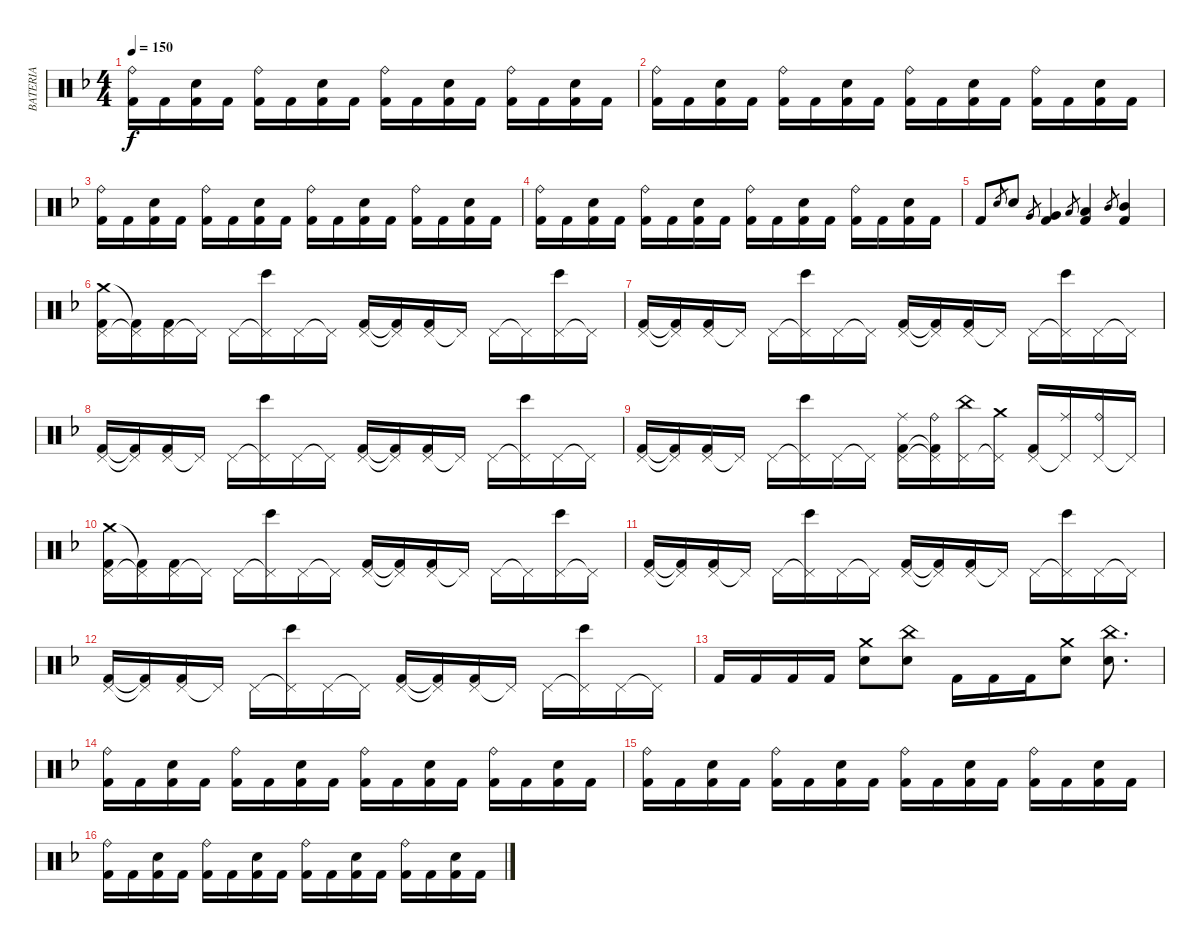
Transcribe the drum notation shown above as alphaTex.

\track ("BATERIA" "BATERIA") {instrument percussion}
\staff {score}
\articulation defaults
\ts (4 4)
\tempo 150
\clef neutral
\ks dminor
("Ride (bell)" "Kick (hit) 2").16{dy f} "Kick (hit) 2".16 ("Snare (hit) 2" "Kick (hit) 2").16 "Kick (hit) 2".16 ("Ride (bell)" "Kick (hit) 2").16 "Kick (hit) 2".16 ("Snare (hit) 2" "Kick (hit) 2").16 "Kick (hit) 2".16 ("Ride (bell)" "Kick (hit) 2").16 "Kick (hit) 2".16 ("Snare (hit) 2" "Kick (hit) 2").16 "Kick (hit) 2".16 ("Ride (bell)" "Kick (hit) 2").16 "Kick (hit) 2".16 ("Snare (hit) 2" "Kick (hit) 2").16 "Kick (hit) 2".16 |
("Ride (bell)" "Kick (hit) 2").16 "Kick (hit) 2".16 ("Snare (hit) 2" "Kick (hit) 2").16 "Kick (hit) 2".16 ("Ride (bell)" "Kick (hit) 2").16 "Kick (hit) 2".16 ("Snare (hit) 2" "Kick (hit) 2").16 "Kick (hit) 2".16 ("Ride (bell)" "Kick (hit) 2").16 "Kick (hit) 2".16 ("Snare (hit) 2" "Kick (hit) 2").16 "Kick (hit) 2".16 ("Ride (bell)" "Kick (hit) 2").16 "Kick (hit) 2".16 ("Snare (hit) 2" "Kick (hit) 2").16 "Kick (hit) 2".16 |
("Ride (bell)" "Kick (hit) 2").16 "Kick (hit) 2".16 ("Snare (hit) 2" "Kick (hit) 2").16 "Kick (hit) 2".16 ("Ride (bell)" "Kick (hit) 2").16 "Kick (hit) 2".16 ("Snare (hit) 2" "Kick (hit) 2").16 "Kick (hit) 2".16 ("Ride (bell)" "Kick (hit) 2").16 "Kick (hit) 2".16 ("Snare (hit) 2" "Kick (hit) 2").16 "Kick (hit) 2".16 ("Ride (bell)" "Kick (hit) 2").16 "Kick (hit) 2".16 ("Snare (hit) 2" "Kick (hit) 2").16 "Kick (hit) 2".16 |
("Ride (bell)" "Kick (hit) 2").16 "Kick (hit) 2".16 ("Snare (hit) 2" "Kick (hit) 2").16 "Kick (hit) 2".16 ("Ride (bell)" "Kick (hit) 2").16 "Kick (hit) 2".16 ("Snare (hit) 2" "Kick (hit) 2").16 "Kick (hit) 2".16 ("Ride (bell)" "Kick (hit) 2").16 "Kick (hit) 2".16 ("Snare (hit) 2" "Kick (hit) 2").16 "Kick (hit) 2".16 ("Ride (bell)" "Kick (hit) 2").16 "Kick (hit) 2".16 ("Snare (hit) 2" "Kick (hit) 2").16 "Kick (hit) 2".16 |
"Kick (hit) 2".8 "Snare (hit) 2".8{gr} "Snare (hit) 2".8 "Very Low Tom (hit)".8{gr} ("Very Low Tom (hit)" "Kick (hit) 2").4 "Low Tom (hit)".8{gr} ("Low Tom (hit)" "Kick (hit) 2").4 "Mid Tom (hit)".8{gr} ("Mid Tom (hit)" "Kick (hit) 2").4 |
("Pedal Hi-Hat (hit)" "Crash medium (hit)" "Kick (hit) 2").16 ("Pedal Hi-Hat (hit)"{t} "Kick (hit) 2"{t}).16 ("Pedal Hi-Hat (hit)" "Kick (hit) 2").16 "Pedal Hi-Hat (hit)"{t}.16 "Pedal Hi-Hat (hit)".16 ("Pedal Hi-Hat (hit)"{t} "Bongo High (hit)").16 "Pedal Hi-Hat (hit)".16 "Pedal Hi-Hat (hit)"{t}.16 ("Pedal Hi-Hat (hit)" "Kick (hit) 2").16 ("Pedal Hi-Hat (hit)"{t} "Kick (hit) 2"{t}).16 ("Pedal Hi-Hat (hit)" "Kick (hit) 2").16 "Pedal Hi-Hat (hit)"{t}.16 "Pedal Hi-Hat (hit)".16 "Pedal Hi-Hat (hit)"{t}.16 ("Pedal Hi-Hat (hit)" "Bongo High (hit)").16 "Pedal Hi-Hat (hit)"{t}.16 |
("Pedal Hi-Hat (hit)" "Kick (hit) 2").16 ("Pedal Hi-Hat (hit)"{t} "Kick (hit) 2"{t}).16 ("Pedal Hi-Hat (hit)" "Kick (hit) 2").16 "Pedal Hi-Hat (hit)"{t}.16 "Pedal Hi-Hat (hit)".16 ("Pedal Hi-Hat (hit)"{t} "Bongo High (hit)").16 "Pedal Hi-Hat (hit)".16 "Pedal Hi-Hat (hit)"{t}.16 ("Pedal Hi-Hat (hit)" "Kick (hit) 2").16 ("Pedal Hi-Hat (hit)"{t} "Kick (hit) 2"{t}).16 ("Pedal Hi-Hat (hit)" "Kick (hit) 2").16 "Pedal Hi-Hat (hit)"{t}.16 "Pedal Hi-Hat (hit)".16 ("Pedal Hi-Hat (hit)"{t} "Bongo High (hit)").16 "Pedal Hi-Hat (hit)".16 "Pedal Hi-Hat (hit)"{t}.16 |
("Pedal Hi-Hat (hit)" "Kick (hit) 2").16 ("Pedal Hi-Hat (hit)"{t} "Kick (hit) 2"{t}).16 ("Pedal Hi-Hat (hit)" "Kick (hit) 2").16 "Pedal Hi-Hat (hit)"{t}.16 "Pedal Hi-Hat (hit)".16 ("Pedal Hi-Hat (hit)"{t} "Bongo High (hit)").16 "Pedal Hi-Hat (hit)".16 "Pedal Hi-Hat (hit)"{t}.16 ("Pedal Hi-Hat (hit)" "Kick (hit) 2").16 ("Pedal Hi-Hat (hit)"{t} "Kick (hit) 2"{t}).16 ("Pedal Hi-Hat (hit)" "Kick (hit) 2").16 "Pedal Hi-Hat (hit)"{t}.16 "Pedal Hi-Hat (hit)".16 ("Pedal Hi-Hat (hit)"{t} "Bongo High (hit)").16 "Pedal Hi-Hat (hit)".16 "Pedal Hi-Hat (hit)"{t}.16 |
("Pedal Hi-Hat (hit)" "Kick (hit) 2").16 ("Pedal Hi-Hat (hit)"{t} "Kick (hit) 2"{t}).16 ("Pedal Hi-Hat (hit)" "Kick (hit) 2").16 "Pedal Hi-Hat (hit)"{t}.16 "Pedal Hi-Hat (hit)".16 ("Pedal Hi-Hat (hit)"{t} "Bongo High (hit)").16 "Pedal Hi-Hat (hit)".16 "Pedal Hi-Hat (hit)"{t}.16 ("Pedal Hi-Hat (hit)" "Ride (middle)" "Kick (hit) 2").16 ("Pedal Hi-Hat (hit)"{t} "Ride (bell)" "Kick (hit) 2"{t}).16 ("Pedal Hi-Hat (hit)" "China (hit)").16 ("Pedal Hi-Hat (hit)"{t} "Crash medium (hit)").16 ("Pedal Hi-Hat (hit)" "Kick (hit) 2").16 ("Pedal Hi-Hat (hit)"{t} "Ride (middle)").16 ("Pedal Hi-Hat (hit)" "Ride (bell)").16 "Pedal Hi-Hat (hit)"{t}.16 |
("Pedal Hi-Hat (hit)" "Crash medium (hit)" "Kick (hit) 2").16 ("Pedal Hi-Hat (hit)"{t} "Kick (hit) 2"{t}).16 ("Pedal Hi-Hat (hit)" "Kick (hit) 2").16 "Pedal Hi-Hat (hit)"{t}.16 "Pedal Hi-Hat (hit)".16 ("Pedal Hi-Hat (hit)"{t} "Bongo High (hit)").16 "Pedal Hi-Hat (hit)".16 "Pedal Hi-Hat (hit)"{t}.16 ("Pedal Hi-Hat (hit)" "Kick (hit) 2").16 ("Pedal Hi-Hat (hit)"{t} "Kick (hit) 2"{t}).16 ("Pedal Hi-Hat (hit)" "Kick (hit) 2").16 "Pedal Hi-Hat (hit)"{t}.16 "Pedal Hi-Hat (hit)".16 "Pedal Hi-Hat (hit)"{t}.16 ("Pedal Hi-Hat (hit)" "Bongo High (hit)").16 "Pedal Hi-Hat (hit)"{t}.16 |
("Pedal Hi-Hat (hit)" "Kick (hit) 2").16 ("Pedal Hi-Hat (hit)"{t} "Kick (hit) 2"{t}).16 ("Pedal Hi-Hat (hit)" "Kick (hit) 2").16 "Pedal Hi-Hat (hit)"{t}.16 "Pedal Hi-Hat (hit)".16 ("Pedal Hi-Hat (hit)"{t} "Bongo High (hit)").16 "Pedal Hi-Hat (hit)".16 "Pedal Hi-Hat (hit)"{t}.16 ("Pedal Hi-Hat (hit)" "Kick (hit) 2").16 ("Pedal Hi-Hat (hit)"{t} "Kick (hit) 2"{t}).16 ("Pedal Hi-Hat (hit)" "Kick (hit) 2").16 "Pedal Hi-Hat (hit)"{t}.16 "Pedal Hi-Hat (hit)".16 ("Pedal Hi-Hat (hit)"{t} "Bongo High (hit)").16 "Pedal Hi-Hat (hit)".16 "Pedal Hi-Hat (hit)"{t}.16 |
("Pedal Hi-Hat (hit)" "Kick (hit) 2").16 ("Pedal Hi-Hat (hit)"{t} "Kick (hit) 2"{t}).16 ("Pedal Hi-Hat (hit)" "Kick (hit) 2").16 "Pedal Hi-Hat (hit)"{t}.16 "Pedal Hi-Hat (hit)".16 ("Pedal Hi-Hat (hit)"{t} "Bongo High (hit)").16 "Pedal Hi-Hat (hit)".16 "Pedal Hi-Hat (hit)"{t}.16 ("Pedal Hi-Hat (hit)" "Kick (hit) 2").16 ("Pedal Hi-Hat (hit)"{t} "Kick (hit) 2"{t}).16 ("Pedal Hi-Hat (hit)" "Kick (hit) 2").16 "Pedal Hi-Hat (hit)"{t}.16 "Pedal Hi-Hat (hit)".16 ("Pedal Hi-Hat (hit)"{t} "Bongo High (hit)").16 "Pedal Hi-Hat (hit)".16 "Pedal Hi-Hat (hit)"{t}.16 |
"Kick (hit) 2".16 "Kick (hit) 2".16 "Kick (hit) 2".16 "Kick (hit) 2".16 ("Crash medium (hit)" "Snare (hit) 2").8 ("China (hit)" "Snare (hit) 2").8 "Kick (hit) 2".16 "Kick (hit) 2".16 "Kick (hit) 2".16 ("Crash medium (hit)" "Snare (hit) 2").8 ("China (hit)" "Snare (hit) 2").8{d} |
("Ride (bell)" "Kick (hit) 2").16 "Kick (hit) 2".16 ("Snare (hit) 2" "Kick (hit) 2").16 "Kick (hit) 2".16 ("Ride (bell)" "Kick (hit) 2").16 "Kick (hit) 2".16 ("Snare (hit) 2" "Kick (hit) 2").16 "Kick (hit) 2".16 ("Ride (bell)" "Kick (hit) 2").16 "Kick (hit) 2".16 ("Snare (hit) 2" "Kick (hit) 2").16 "Kick (hit) 2".16 ("Ride (bell)" "Kick (hit) 2").16 "Kick (hit) 2".16 ("Snare (hit) 2" "Kick (hit) 2").16 "Kick (hit) 2".16 |
("Ride (bell)" "Kick (hit) 2").16 "Kick (hit) 2".16 ("Snare (hit) 2" "Kick (hit) 2").16 "Kick (hit) 2".16 ("Ride (bell)" "Kick (hit) 2").16 "Kick (hit) 2".16 ("Snare (hit) 2" "Kick (hit) 2").16 "Kick (hit) 2".16 ("Ride (bell)" "Kick (hit) 2").16 "Kick (hit) 2".16 ("Snare (hit) 2" "Kick (hit) 2").16 "Kick (hit) 2".16 ("Ride (bell)" "Kick (hit) 2").16 "Kick (hit) 2".16 ("Snare (hit) 2" "Kick (hit) 2").16 "Kick (hit) 2".16 |
("Ride (bell)" "Kick (hit) 2").16 "Kick (hit) 2".16 ("Snare (hit) 2" "Kick (hit) 2").16 "Kick (hit) 2".16 ("Ride (bell)" "Kick (hit) 2").16 "Kick (hit) 2".16 ("Snare (hit) 2" "Kick (hit) 2").16 "Kick (hit) 2".16 ("Ride (bell)" "Kick (hit) 2").16 "Kick (hit) 2".16 ("Snare (hit) 2" "Kick (hit) 2").16 "Kick (hit) 2".16 ("Ride (bell)" "Kick (hit) 2").16 "Kick (hit) 2".16 ("Snare (hit) 2" "Kick (hit) 2").16 "Kick (hit) 2".16
